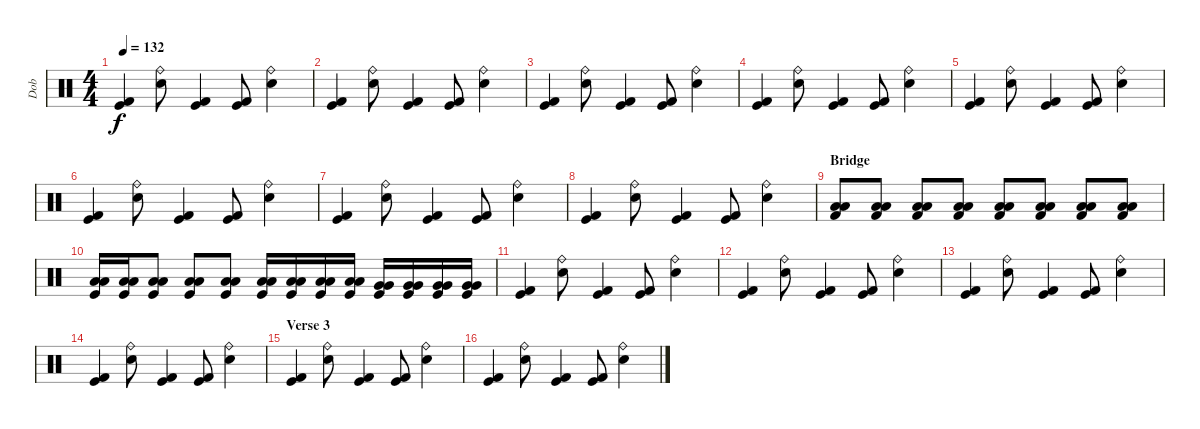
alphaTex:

\track ("Dob" "Dob") {instrument percussion}
\staff {score}
\articulation defaults
\ts (4 4)
\tempo 132
\clef neutral
\ks c
("Kick (hit)" "Kick (hit) 2").4{dy f} ("Snare (hit) 2" "Ride (bell)").8 ("Kick (hit)" "Kick (hit) 2").4 ("Kick (hit)" "Kick (hit) 2").8 ("Snare (hit) 2" "Ride (bell)").4 |
("Kick (hit)" "Kick (hit) 2").4 ("Snare (hit) 2" "Ride (bell)").8 ("Kick (hit)" "Kick (hit) 2").4 ("Kick (hit)" "Kick (hit) 2").8 ("Snare (hit) 2" "Ride (bell)").4 |
("Kick (hit)" "Kick (hit) 2").4 ("Snare (hit) 2" "Ride (bell)").8 ("Kick (hit)" "Kick (hit) 2").4 ("Kick (hit)" "Kick (hit) 2").8 ("Snare (hit) 2" "Ride (bell)").4 |
("Kick (hit)" "Kick (hit) 2").4 ("Snare (hit) 2" "Ride (bell)").8 ("Kick (hit)" "Kick (hit) 2").4 ("Kick (hit)" "Kick (hit) 2").8 ("Snare (hit) 2" "Ride (bell)").4 |
("Kick (hit)" "Kick (hit) 2").4 ("Snare (hit) 2" "Ride (bell)").8 ("Kick (hit)" "Kick (hit) 2").4 ("Kick (hit)" "Kick (hit) 2").8 ("Snare (hit) 2" "Ride (bell)").4 |
("Kick (hit)" "Kick (hit) 2").4 ("Snare (hit) 2" "Ride (bell)").8 ("Kick (hit)" "Kick (hit) 2").4 ("Kick (hit)" "Kick (hit) 2").8 ("Snare (hit) 2" "Ride (bell)").4 |
("Kick (hit)" "Kick (hit) 2").4 ("Snare (hit) 2" "Ride (bell)").8 ("Kick (hit)" "Kick (hit) 2").4 ("Kick (hit)" "Kick (hit) 2").8 ("Snare (hit) 2" "Ride (bell)").4 |
("Kick (hit)" "Kick (hit) 2").4 ("Snare (hit) 2" "Ride (bell)").8 ("Kick (hit)" "Kick (hit) 2").4 ("Kick (hit)" "Kick (hit) 2").8 ("Snare (hit) 2" "Ride (bell)").4 |
\section ("" "Bridge")
("Kick (hit) 2" "Low Tom (hit)" "Low Tom (hit)").8 ("Kick (hit) 2" "Low Tom (hit)" "Low Tom (hit)").8 ("Kick (hit) 2" "Low Tom (hit)" "Low Tom (hit)").8 ("Kick (hit) 2" "Low Tom (hit)" "Low Tom (hit)").8 ("Kick (hit) 2" "Low Tom (hit)" "Low Tom (hit)").8 ("Kick (hit) 2" "Low Tom (hit)" "Low Tom (hit)").8 ("Kick (hit) 2" "Low Tom (hit)" "Low Tom (hit)").8 ("Kick (hit) 2" "Low Tom (hit)" "Low Tom (hit)").8 |
("Kick (hit)" "Low Tom (hit)" "Low Tom (hit)").16 ("Kick (hit)" "Low Tom (hit)" "Low Tom (hit)").16 ("Kick (hit)" "Low Tom (hit)" "Low Tom (hit)").8 ("Kick (hit)" "Low Tom (hit)" "Low Tom (hit)").8 ("Kick (hit)" "Low Tom (hit)" "Low Tom (hit)").8 ("Kick (hit)" "Low Tom (hit)" "Low Tom (hit)").16 ("Kick (hit)" "Low Tom (hit)" "Low Tom (hit)").16 ("Kick (hit)" "Low Tom (hit)" "Low Tom (hit)").16 ("Kick (hit)" "Low Tom (hit)" "Low Tom (hit)").16 ("Kick (hit)" "Very Low Tom (hit)" "Very Low Tom (hit)").16 ("Kick (hit)" "Very Low Tom (hit)" "Very Low Tom (hit)").16 ("Kick (hit)" "Very Low Tom (hit)" "Very Low Tom (hit)").16 ("Kick (hit)" "Very Low Tom (hit)" "Very Low Tom (hit)").16 |
("Kick (hit)" "Kick (hit) 2").4 ("Snare (hit) 2" "Ride (bell)").8 ("Kick (hit)" "Kick (hit) 2").4 ("Kick (hit)" "Kick (hit) 2").8 ("Snare (hit) 2" "Ride (bell)").4 |
("Kick (hit)" "Kick (hit) 2").4 ("Snare (hit) 2" "Ride (bell)").8 ("Kick (hit)" "Kick (hit) 2").4 ("Kick (hit)" "Kick (hit) 2").8 ("Snare (hit) 2" "Ride (bell)").4 |
("Kick (hit)" "Kick (hit) 2").4 ("Snare (hit) 2" "Ride (bell)").8 ("Kick (hit)" "Kick (hit) 2").4 ("Kick (hit)" "Kick (hit) 2").8 ("Snare (hit) 2" "Ride (bell)").4 |
("Kick (hit)" "Kick (hit) 2").4 ("Snare (hit) 2" "Ride (bell)").8 ("Kick (hit)" "Kick (hit) 2").4 ("Kick (hit)" "Kick (hit) 2").8 ("Snare (hit) 2" "Ride (bell)").4 |
\section ("" "Verse 3")
("Kick (hit)" "Kick (hit) 2").4 ("Snare (hit) 2" "Ride (bell)").8 ("Kick (hit)" "Kick (hit) 2").4 ("Kick (hit)" "Kick (hit) 2").8 ("Snare (hit) 2" "Ride (bell)").4 |
("Kick (hit)" "Kick (hit) 2").4 ("Snare (hit) 2" "Ride (bell)").8 ("Kick (hit)" "Kick (hit) 2").4 ("Kick (hit)" "Kick (hit) 2").8 ("Snare (hit) 2" "Ride (bell)").4
